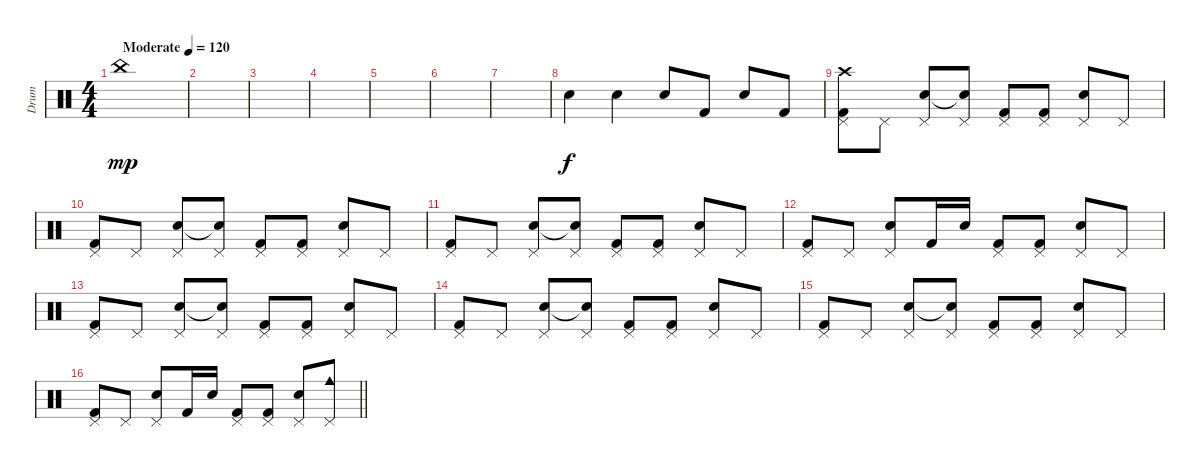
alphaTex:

\track ("Drum" "Drum") {instrument percussion}
\staff {score}
\articulation defaults
\ts (4 4)
\tempo (120 "Moderate")
\clef neutral
\ks c "China (hit)".1{dy mp}
|
|
|
|
|
|
|
"Snare (hit) 2".4{dy f} "Snare (hit) 2".4 "Snare (hit) 2".8 "Kick (hit) 2".8 "Snare (hit) 2".8 "Kick (hit) 2".8 |
("Pedal Hi-Hat (hit)" "Crash high (hit)" "Kick (hit) 2").8 "Pedal Hi-Hat (hit)".8 ("Pedal Hi-Hat (hit)" "Snare (hit) 2").8 ("Pedal Hi-Hat (hit)" "Snare (hit)"{t}).8 ("Pedal Hi-Hat (hit)" "Kick (hit) 2").8 ("Pedal Hi-Hat (hit)" "Kick (hit) 2").8 ("Pedal Hi-Hat (hit)" "Snare (hit) 2").8 "Pedal Hi-Hat (hit)".8 |
("Pedal Hi-Hat (hit)" "Kick (hit) 2").8 "Pedal Hi-Hat (hit)".8 ("Pedal Hi-Hat (hit)" "Snare (hit) 2").8 ("Pedal Hi-Hat (hit)" "Snare (hit)"{t}).8 ("Pedal Hi-Hat (hit)" "Kick (hit) 2").8 ("Pedal Hi-Hat (hit)" "Kick (hit) 2").8 ("Pedal Hi-Hat (hit)" "Snare (hit) 2").8 "Pedal Hi-Hat (hit)".8 |
("Pedal Hi-Hat (hit)" "Kick (hit) 2").8 "Pedal Hi-Hat (hit)".8 ("Pedal Hi-Hat (hit)" "Snare (hit) 2").8 ("Pedal Hi-Hat (hit)" "Snare (hit)"{t}).8 ("Pedal Hi-Hat (hit)" "Kick (hit) 2").8 ("Pedal Hi-Hat (hit)" "Kick (hit) 2").8 ("Pedal Hi-Hat (hit)" "Snare (hit) 2").8 "Pedal Hi-Hat (hit)".8 |
("Pedal Hi-Hat (hit)" "Kick (hit) 2").8 "Pedal Hi-Hat (hit)".8 ("Pedal Hi-Hat (hit)" "Snare (hit) 2").8 "Kick (hit) 2".16 "Snare (hit) 2".16 ("Pedal Hi-Hat (hit)" "Kick (hit) 2").8 ("Pedal Hi-Hat (hit)" "Kick (hit) 2").8 ("Pedal Hi-Hat (hit)" "Snare (hit) 2").8 "Pedal Hi-Hat (hit)".8 |
("Pedal Hi-Hat (hit)" "Kick (hit) 2").8 "Pedal Hi-Hat (hit)".8 ("Pedal Hi-Hat (hit)" "Snare (hit) 2").8 ("Pedal Hi-Hat (hit)" "Snare (hit)"{t}).8 ("Pedal Hi-Hat (hit)" "Kick (hit) 2").8 ("Pedal Hi-Hat (hit)" "Kick (hit) 2").8 ("Pedal Hi-Hat (hit)" "Snare (hit) 2").8 "Pedal Hi-Hat (hit)".8 |
("Pedal Hi-Hat (hit)" "Kick (hit) 2").8 "Pedal Hi-Hat (hit)".8 ("Pedal Hi-Hat (hit)" "Snare (hit) 2").8 ("Pedal Hi-Hat (hit)" "Snare (hit)"{t}).8 ("Pedal Hi-Hat (hit)" "Kick (hit) 2").8 ("Pedal Hi-Hat (hit)" "Kick (hit) 2").8 ("Pedal Hi-Hat (hit)" "Snare (hit) 2").8 "Pedal Hi-Hat (hit)".8 |
("Pedal Hi-Hat (hit)" "Kick (hit) 2").8 "Pedal Hi-Hat (hit)".8 ("Pedal Hi-Hat (hit)" "Snare (hit) 2").8 ("Pedal Hi-Hat (hit)" "Snare (hit)"{t}).8 ("Pedal Hi-Hat (hit)" "Kick (hit) 2").8 ("Pedal Hi-Hat (hit)" "Kick (hit) 2").8 ("Pedal Hi-Hat (hit)" "Snare (hit) 2").8 "Pedal Hi-Hat (hit)".8 |
\barLineRight lightlight
("Pedal Hi-Hat (hit)" "Kick (hit) 2").8 "Pedal Hi-Hat (hit)".8 ("Pedal Hi-Hat (hit)" "Snare (hit) 2").8 "Kick (hit) 2".16 "Snare (hit) 2".16 ("Pedal Hi-Hat (hit)" "Kick (hit) 2").8 ("Pedal Hi-Hat (hit)" "Kick (hit) 2").8 ("Pedal Hi-Hat (hit)" "Snare (hit) 2").8 ("Pedal Hi-Hat (hit)" "Cowbell medium (hit)").8
